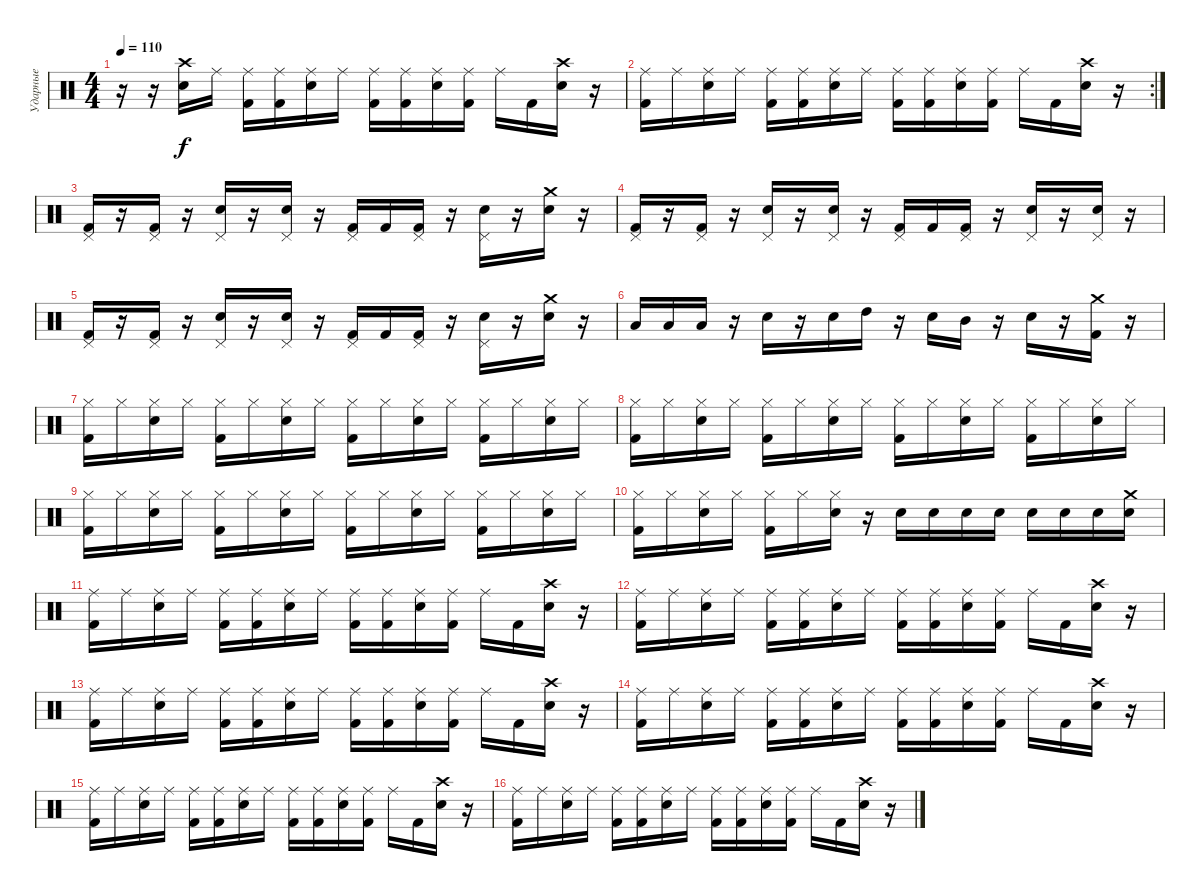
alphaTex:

\track ("Ударные" "Ударные") {instrument percussion}
\staff {score}
\articulation defaults
\ts (4 4)
\tempo 110
\clef neutral
\ks c
r.16{dy f} r.16 ("Electric Snare (hit)" "Crash high (hit)").16 "Ride (middle)".16 ("Kick (hit) 2" "Ride (middle)").16 ("Kick (hit) 2" "Ride (middle)").16 ("Electric Snare (hit)" "Ride (middle)").16 "Ride (middle)".16 ("Kick (hit) 2" "Ride (middle)").16 ("Kick (hit) 2" "Ride (middle)").16 ("Electric Snare (hit)" "Ride (middle)").16 ("Kick (hit) 2" "Ride (middle)").16 "Ride (middle)".16 "Kick (hit) 2".16 ("Electric Snare (hit)" "Crash high (hit)").16 r.16 |
\rc 2
("Kick (hit) 2" "Ride (middle)").16 "Ride (middle)".16 ("Electric Snare (hit)" "Ride (middle)").16 "Ride (middle)".16 ("Kick (hit) 2" "Ride (middle)").16 ("Kick (hit) 2" "Ride (middle)").16 ("Electric Snare (hit)" "Ride (middle)").16 "Ride (middle)".16 ("Kick (hit) 2" "Ride (middle)").16 ("Kick (hit) 2" "Ride (middle)").16 ("Electric Snare (hit)" "Ride (middle)").16 ("Kick (hit) 2" "Ride (middle)").16 "Ride (middle)".16 "Kick (hit) 2".16 ("Electric Snare (hit)" "Crash high (hit)").16 r.16 |
("Kick (hit) 2" "Pedal Hi-Hat (hit)").16 r.16 ("Kick (hit) 2" "Pedal Hi-Hat (hit)").16 r.16 ("Electric Snare (hit)" "Pedal Hi-Hat (hit)").16 r.16 ("Electric Snare (hit)" "Pedal Hi-Hat (hit)").16 r.16 ("Kick (hit) 2" "Pedal Hi-Hat (hit)").16 "Kick (hit) 2".16 ("Kick (hit) 2" "Pedal Hi-Hat (hit)").16 r.16 ("Electric Snare (hit)" "Pedal Hi-Hat (hit)").16 r.16 ("Electric Snare (hit)" "Crash medium (hit)").16 r.16 |
("Kick (hit) 2" "Pedal Hi-Hat (hit)").16 r.16 ("Kick (hit) 2" "Pedal Hi-Hat (hit)").16 r.16 ("Electric Snare (hit)" "Pedal Hi-Hat (hit)").16 r.16 ("Electric Snare (hit)" "Pedal Hi-Hat (hit)").16 r.16 ("Kick (hit) 2" "Pedal Hi-Hat (hit)").16 "Kick (hit) 2".16 ("Kick (hit) 2" "Pedal Hi-Hat (hit)").16 r.16 ("Electric Snare (hit)" "Pedal Hi-Hat (hit)").16 r.16 ("Electric Snare (hit)" "Pedal Hi-Hat (hit)").16 r.16 |
("Kick (hit) 2" "Pedal Hi-Hat (hit)").16 r.16 ("Kick (hit) 2" "Pedal Hi-Hat (hit)").16 r.16 ("Electric Snare (hit)" "Pedal Hi-Hat (hit)").16 r.16 ("Electric Snare (hit)" "Pedal Hi-Hat (hit)").16 r.16 ("Kick (hit) 2" "Pedal Hi-Hat (hit)").16 "Kick (hit) 2".16 ("Kick (hit) 2" "Pedal Hi-Hat (hit)").16 r.16 ("Electric Snare (hit)" "Pedal Hi-Hat (hit)").16 r.16 ("Electric Snare (hit)" "Crash medium (hit)").16 r.16 |
"Low Tom (hit)".16 "Low Tom (hit)".16 "Low Tom (hit)".16 r.16 "Electric Snare (hit)".16 r.16 "Electric Snare (hit)".16 "High Tom (hit)".16 r.16 "Electric Snare (hit)".16 "Mid Tom (hit)".16 r.16 "Electric Snare (hit)".16 r.16 ("Kick (hit) 2" "Crash medium (hit)").16 r.16 |
("Kick (hit) 2" "Hi-Hat (closed)").16 "Hi-Hat (closed)".16 ("Electric Snare (hit)" "Hi-Hat (closed)").16 "Hi-Hat (closed)".16 ("Kick (hit) 2" "Hi-Hat (closed)").16 "Hi-Hat (closed)".16 ("Electric Snare (hit)" "Hi-Hat (closed)").16 "Hi-Hat (closed)".16 ("Kick (hit) 2" "Hi-Hat (closed)").16 "Hi-Hat (closed)".16 ("Electric Snare (hit)" "Hi-Hat (closed)").16 "Hi-Hat (closed)".16 ("Kick (hit) 2" "Hi-Hat (closed)").16 "Hi-Hat (closed)".16 ("Electric Snare (hit)" "Hi-Hat (closed)").16 "Hi-Hat (closed)".16 |
("Kick (hit) 2" "Hi-Hat (closed)").16 "Hi-Hat (closed)".16 ("Electric Snare (hit)" "Hi-Hat (closed)").16 "Hi-Hat (closed)".16 ("Kick (hit) 2" "Hi-Hat (closed)").16 "Hi-Hat (closed)".16 ("Electric Snare (hit)" "Hi-Hat (closed)").16 "Hi-Hat (closed)".16 ("Kick (hit) 2" "Hi-Hat (closed)").16 "Hi-Hat (closed)".16 ("Electric Snare (hit)" "Hi-Hat (closed)").16 "Hi-Hat (closed)".16 ("Kick (hit) 2" "Hi-Hat (closed)").16 "Hi-Hat (closed)".16 ("Electric Snare (hit)" "Hi-Hat (closed)").16 "Hi-Hat (closed)".16 |
("Kick (hit) 2" "Hi-Hat (closed)").16 "Hi-Hat (closed)".16 ("Electric Snare (hit)" "Hi-Hat (closed)").16 "Hi-Hat (closed)".16 ("Kick (hit) 2" "Hi-Hat (closed)").16 "Hi-Hat (closed)".16 ("Electric Snare (hit)" "Hi-Hat (closed)").16 "Hi-Hat (closed)".16 ("Kick (hit) 2" "Hi-Hat (closed)").16 "Hi-Hat (closed)".16 ("Electric Snare (hit)" "Hi-Hat (closed)").16 "Hi-Hat (closed)".16 ("Kick (hit) 2" "Hi-Hat (closed)").16 "Hi-Hat (closed)".16 ("Electric Snare (hit)" "Hi-Hat (closed)").16 "Hi-Hat (closed)".16 |
("Kick (hit) 2" "Hi-Hat (closed)").16 "Hi-Hat (closed)".16 ("Electric Snare (hit)" "Hi-Hat (closed)").16 "Hi-Hat (closed)".16 ("Kick (hit) 2" "Hi-Hat (closed)").16 "Hi-Hat (closed)".16 ("Electric Snare (hit)" "Hi-Hat (closed)").16 r.16 "Electric Snare (hit)".16 "Electric Snare (hit)".16 "Electric Snare (hit)".16 "Electric Snare (hit)".16 "Electric Snare (hit)".16 "Electric Snare (hit)".16 "Electric Snare (hit)".16 ("Electric Snare (hit)" "Crash medium (hit)").16 |
("Kick (hit) 2" "Ride (middle)").16 "Ride (middle)".16 ("Electric Snare (hit)" "Ride (middle)").16 "Ride (middle)".16 ("Kick (hit) 2" "Ride (middle)").16 ("Kick (hit) 2" "Ride (middle)").16 ("Electric Snare (hit)" "Ride (middle)").16 "Ride (middle)".16 ("Kick (hit) 2" "Ride (middle)").16 ("Kick (hit) 2" "Ride (middle)").16 ("Electric Snare (hit)" "Ride (middle)").16 ("Kick (hit) 2" "Ride (middle)").16 "Ride (middle)".16 "Kick (hit) 2".16 ("Electric Snare (hit)" "Crash high (hit)").16 r.16 |
("Kick (hit) 2" "Ride (middle)").16 "Ride (middle)".16 ("Electric Snare (hit)" "Ride (middle)").16 "Ride (middle)".16 ("Kick (hit) 2" "Ride (middle)").16 ("Kick (hit) 2" "Ride (middle)").16 ("Electric Snare (hit)" "Ride (middle)").16 "Ride (middle)".16 ("Kick (hit) 2" "Ride (middle)").16 ("Kick (hit) 2" "Ride (middle)").16 ("Electric Snare (hit)" "Ride (middle)").16 ("Kick (hit) 2" "Ride (middle)").16 "Ride (middle)".16 "Kick (hit) 2".16 ("Electric Snare (hit)" "Crash high (hit)").16 r.16 |
("Kick (hit) 2" "Ride (middle)").16 "Ride (middle)".16 ("Electric Snare (hit)" "Ride (middle)").16 "Ride (middle)".16 ("Kick (hit) 2" "Ride (middle)").16 ("Kick (hit) 2" "Ride (middle)").16 ("Electric Snare (hit)" "Ride (middle)").16 "Ride (middle)".16 ("Kick (hit) 2" "Ride (middle)").16 ("Kick (hit) 2" "Ride (middle)").16 ("Electric Snare (hit)" "Ride (middle)").16 ("Kick (hit) 2" "Ride (middle)").16 "Ride (middle)".16 "Kick (hit) 2".16 ("Electric Snare (hit)" "Crash high (hit)").16 r.16 |
("Kick (hit) 2" "Ride (middle)").16 "Ride (middle)".16 ("Electric Snare (hit)" "Ride (middle)").16 "Ride (middle)".16 ("Kick (hit) 2" "Ride (middle)").16 ("Kick (hit) 2" "Ride (middle)").16 ("Electric Snare (hit)" "Ride (middle)").16 "Ride (middle)".16 ("Kick (hit) 2" "Ride (middle)").16 ("Kick (hit) 2" "Ride (middle)").16 ("Electric Snare (hit)" "Ride (middle)").16 ("Kick (hit) 2" "Ride (middle)").16 "Ride (middle)".16 "Kick (hit) 2".16 ("Electric Snare (hit)" "Crash high (hit)").16 r.16 |
("Kick (hit) 2" "Ride (middle)").16 "Ride (middle)".16 ("Electric Snare (hit)" "Ride (middle)").16 "Ride (middle)".16 ("Kick (hit) 2" "Ride (middle)").16 ("Kick (hit) 2" "Ride (middle)").16 ("Electric Snare (hit)" "Ride (middle)").16 "Ride (middle)".16 ("Kick (hit) 2" "Ride (middle)").16 ("Kick (hit) 2" "Ride (middle)").16 ("Electric Snare (hit)" "Ride (middle)").16 ("Kick (hit) 2" "Ride (middle)").16 "Ride (middle)".16 "Kick (hit) 2".16 ("Electric Snare (hit)" "Crash high (hit)").16 r.16 |
("Kick (hit) 2" "Ride (middle)").16 "Ride (middle)".16 ("Electric Snare (hit)" "Ride (middle)").16 "Ride (middle)".16 ("Kick (hit) 2" "Ride (middle)").16 ("Kick (hit) 2" "Ride (middle)").16 ("Electric Snare (hit)" "Ride (middle)").16 "Ride (middle)".16 ("Kick (hit) 2" "Ride (middle)").16 ("Kick (hit) 2" "Ride (middle)").16 ("Electric Snare (hit)" "Ride (middle)").16 ("Kick (hit) 2" "Ride (middle)").16 "Ride (middle)".16 "Kick (hit) 2".16 ("Electric Snare (hit)" "Crash high (hit)").16 r.16
